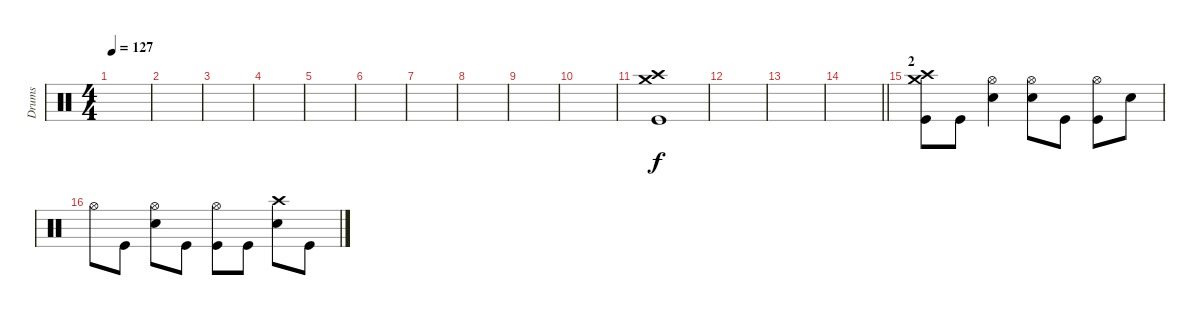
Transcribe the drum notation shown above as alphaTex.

\track ("Drums" "Drums") {instrument percussion}
\staff {score}
\articulation defaults
\ts (4 4)
\tempo 127
\clef neutral
\ks c
|
|
|
|
|
|
|
|
|
|
("Crash medium (hit)" "Crash high (hit)" "Kick (hit)").1 |
|
|
\barLineRight lightlight
|
\section ("" "2")
("Crash medium (hit)" "Crash high (hit)" "Kick (hit)").8 "Kick (hit)".8 ("Hi-Hat (open)" "Snare (hit) 2").4 ("Hi-Hat (open)" "Snare (hit) 2").8 "Kick (hit)".8 ("Hi-Hat (open)" "Kick (hit)").8 "Snare (hit) 2".8 |
"Hi-Hat (open)".8 "Kick (hit)".8 ("Hi-Hat (open)" "Snare (hit) 2").8 "Kick (hit)".8 ("Hi-Hat (open)" "Kick (hit)").8 "Kick (hit)".8 ("Crash high (hit)" "Snare (hit) 2").8 "Kick (hit)".8
